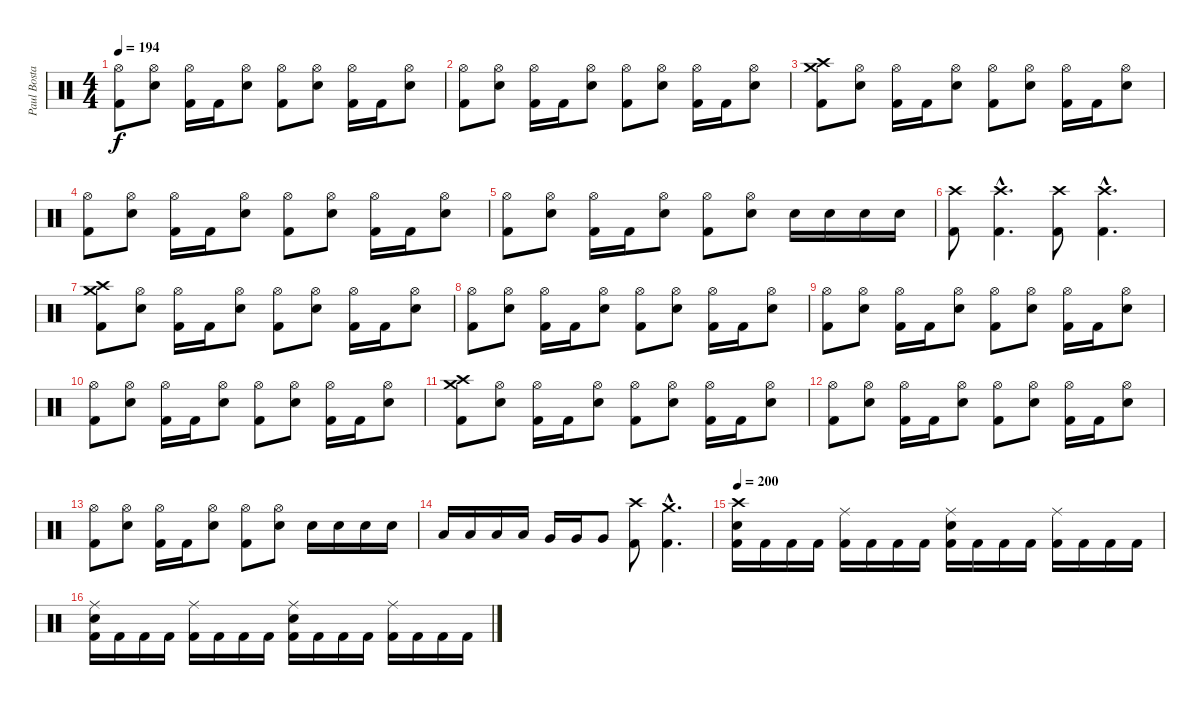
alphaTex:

\track ("Paul Bostaph" "Paul Bosta") {instrument percussion}
\staff {score}
\articulation defaults
\ts (4 4)
\tempo 194
\clef neutral
\ks c
("Hi-Hat (open)" "Kick (hit) 2").8{dy f} ("Hi-Hat (open)" "Electric Snare (hit)").8 ("Hi-Hat (open)" "Kick (hit) 2").16 "Kick (hit) 2".16 ("Hi-Hat (open)" "Electric Snare (hit)").8 ("Hi-Hat (open)" "Kick (hit) 2").8 ("Hi-Hat (open)" "Electric Snare (hit)").8 ("Hi-Hat (open)" "Kick (hit) 2").16 "Kick (hit) 2".16 ("Hi-Hat (open)" "Electric Snare (hit)").8 |
("Hi-Hat (open)" "Kick (hit) 2").8 ("Hi-Hat (open)" "Electric Snare (hit)").8 ("Hi-Hat (open)" "Kick (hit) 2").16 "Kick (hit) 2".16 ("Hi-Hat (open)" "Electric Snare (hit)").8 ("Hi-Hat (open)" "Kick (hit) 2").8 ("Hi-Hat (open)" "Electric Snare (hit)").8 ("Hi-Hat (open)" "Kick (hit) 2").16 "Kick (hit) 2".16 ("Hi-Hat (open)" "Electric Snare (hit)").8 |
("Crash high (hit)" "Crash medium (hit)" "Kick (hit) 2").8 ("Hi-Hat (open)" "Electric Snare (hit)").8 ("Hi-Hat (open)" "Kick (hit) 2").16 "Kick (hit) 2".16 ("Hi-Hat (open)" "Electric Snare (hit)").8 ("Hi-Hat (open)" "Kick (hit) 2").8 ("Hi-Hat (open)" "Electric Snare (hit)").8 ("Hi-Hat (open)" "Kick (hit) 2").16 "Kick (hit) 2".16 ("Hi-Hat (open)" "Electric Snare (hit)").8 |
("Hi-Hat (open)" "Kick (hit) 2").8 ("Hi-Hat (open)" "Electric Snare (hit)").8 ("Hi-Hat (open)" "Kick (hit) 2").16 "Kick (hit) 2".16 ("Hi-Hat (open)" "Electric Snare (hit)").8 ("Hi-Hat (open)" "Kick (hit) 2").8 ("Hi-Hat (open)" "Electric Snare (hit)").8 ("Hi-Hat (open)" "Kick (hit) 2").16 "Kick (hit) 2".16 ("Hi-Hat (open)" "Electric Snare (hit)").8 |
("Hi-Hat (open)" "Kick (hit) 2").8 ("Hi-Hat (open)" "Electric Snare (hit)").8 ("Hi-Hat (open)" "Kick (hit) 2").16 "Kick (hit) 2".16 ("Hi-Hat (open)" "Electric Snare (hit)").8 ("Hi-Hat (open)" "Kick (hit) 2").8 ("Hi-Hat (open)" "Electric Snare (hit)").8 "Electric Snare (hit)".16 "Electric Snare (hit)".16 "Electric Snare (hit)".16 "Electric Snare (hit)".16 |
("Crash high (hit)" "Kick (hit) 2").8 ("Crash high (hit)"{hac} "Kick (hit) 2"{hac}).4{d} ("Crash high (hit)" "Kick (hit) 2").8 ("Crash high (hit)"{hac} "Kick (hit) 2"{hac}).4{d} |
("Crash medium (hit)" "Crash high (hit)" "Kick (hit) 2").8 ("Hi-Hat (open)" "Electric Snare (hit)").8 ("Hi-Hat (open)" "Kick (hit) 2").16 "Kick (hit) 2".16 ("Hi-Hat (open)" "Electric Snare (hit)").8 ("Hi-Hat (open)" "Kick (hit) 2").8 ("Hi-Hat (open)" "Electric Snare (hit)").8 ("Hi-Hat (open)" "Kick (hit) 2").16 "Kick (hit) 2".16 ("Hi-Hat (open)" "Electric Snare (hit)").8 |
("Hi-Hat (open)" "Kick (hit) 2").8 ("Hi-Hat (open)" "Electric Snare (hit)").8 ("Hi-Hat (open)" "Kick (hit) 2").16 "Kick (hit) 2".16 ("Hi-Hat (open)" "Electric Snare (hit)").8 ("Hi-Hat (open)" "Kick (hit) 2").8 ("Hi-Hat (open)" "Electric Snare (hit)").8 ("Hi-Hat (open)" "Kick (hit) 2").16 "Kick (hit) 2".16 ("Hi-Hat (open)" "Electric Snare (hit)").8 |
("Hi-Hat (open)" "Kick (hit) 2").8 ("Hi-Hat (open)" "Electric Snare (hit)").8 ("Hi-Hat (open)" "Kick (hit) 2").16 "Kick (hit) 2".16 ("Hi-Hat (open)" "Electric Snare (hit)").8 ("Hi-Hat (open)" "Kick (hit) 2").8 ("Hi-Hat (open)" "Electric Snare (hit)").8 ("Hi-Hat (open)" "Kick (hit) 2").16 "Kick (hit) 2".16 ("Hi-Hat (open)" "Electric Snare (hit)").8 |
("Hi-Hat (open)" "Kick (hit) 2").8 ("Hi-Hat (open)" "Electric Snare (hit)").8 ("Hi-Hat (open)" "Kick (hit) 2").16 "Kick (hit) 2".16 ("Hi-Hat (open)" "Electric Snare (hit)").8 ("Hi-Hat (open)" "Kick (hit) 2").8 ("Hi-Hat (open)" "Electric Snare (hit)").8 ("Hi-Hat (open)" "Kick (hit) 2").16 "Kick (hit) 2".16 ("Hi-Hat (open)" "Electric Snare (hit)").8 |
("Crash high (hit)" "Crash medium (hit)" "Kick (hit) 2").8 ("Hi-Hat (open)" "Electric Snare (hit)").8 ("Hi-Hat (open)" "Kick (hit) 2").16 "Kick (hit) 2".16 ("Hi-Hat (open)" "Electric Snare (hit)").8 ("Hi-Hat (open)" "Kick (hit) 2").8 ("Hi-Hat (open)" "Electric Snare (hit)").8 ("Hi-Hat (open)" "Kick (hit) 2").16 "Kick (hit) 2".16 ("Hi-Hat (open)" "Electric Snare (hit)").8 |
("Hi-Hat (open)" "Kick (hit) 2").8 ("Hi-Hat (open)" "Electric Snare (hit)").8 ("Hi-Hat (open)" "Kick (hit) 2").16 "Kick (hit) 2".16 ("Hi-Hat (open)" "Electric Snare (hit)").8 ("Hi-Hat (open)" "Kick (hit) 2").8 ("Hi-Hat (open)" "Electric Snare (hit)").8 ("Hi-Hat (open)" "Kick (hit) 2").16 "Kick (hit) 2".16 ("Hi-Hat (open)" "Electric Snare (hit)").8 |
("Hi-Hat (open)" "Kick (hit) 2").8 ("Hi-Hat (open)" "Electric Snare (hit)").8 ("Hi-Hat (open)" "Kick (hit) 2").16 "Kick (hit) 2".16 ("Hi-Hat (open)" "Electric Snare (hit)").8 ("Hi-Hat (open)" "Kick (hit) 2").8 ("Hi-Hat (open)" "Electric Snare (hit)").8 "Electric Snare (hit)".16 "Electric Snare (hit)".16 "Electric Snare (hit)".16 "Electric Snare (hit)".16 |
"Low Tom (hit)".16 "Low Tom (hit)".16 "Low Tom (hit)".16 "Low Tom (hit)".16 "Very Low Tom (hit)".16 "Very Low Tom (hit)".16 "Very Low Tom (hit)".8 ("Crash high (hit)" "Kick (hit) 2").8 ("Crash medium (hit)"{hac} "Kick (hit) 2"{hac}).4{d} |
\tempo 200
("Electric Snare (hit)" "Kick (hit) 2" "Crash high (hit)").16 "Kick (hit) 2".16 "Kick (hit) 2".16 "Kick (hit) 2".16 ("Kick (hit) 2" "Ride (middle)").16 "Kick (hit) 2".16 "Kick (hit) 2".16 "Kick (hit) 2".16 ("Electric Snare (hit)" "Kick (hit) 2" "Ride (middle)").16 "Kick (hit) 2".16 "Kick (hit) 2".16 "Kick (hit) 2".16 ("Kick (hit) 2" "Ride (middle)").16 "Kick (hit) 2".16 "Kick (hit) 2".16 "Kick (hit) 2".16 |
("Electric Snare (hit)" "Kick (hit) 2" "Ride (middle)").16 "Kick (hit) 2".16 "Kick (hit) 2".16 "Kick (hit) 2".16 ("Kick (hit) 2" "Ride (middle)").16 "Kick (hit) 2".16 "Kick (hit) 2".16 "Kick (hit) 2".16 ("Electric Snare (hit)" "Kick (hit) 2" "Ride (middle)").16 "Kick (hit) 2".16 "Kick (hit) 2".16 "Kick (hit) 2".16 ("Kick (hit) 2" "Ride (middle)").16 "Kick (hit) 2".16 "Kick (hit) 2".16 "Kick (hit) 2".16
